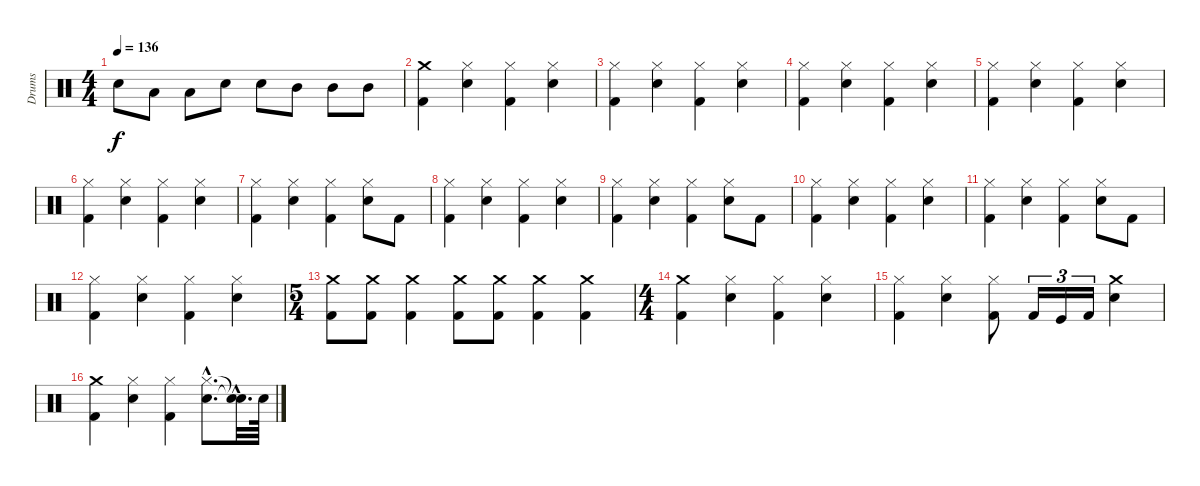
\track ("Drums" "Drums") {instrument percussion}
\staff {score}
\articulation defaults
\ts (4 4)
\tempo 136
\clef neutral
\ks c "Snare (hit) 2".8{dy f} "Low Tom (hit)".8 "Low Tom (hit)".8 "Snare (hit) 2".8 "Snare (hit) 2".8 "Mid Tom (hit)".8 "Mid Tom (hit)".8 "Mid Tom (hit)".8
|
("Kick (hit) 2" "Crash medium (hit)").4 ("Hi-Hat (closed)" "Snare (hit) 2").4 ("Kick (hit) 2" "Hi-Hat (closed)").4 ("Snare (hit) 2" "Hi-Hat (closed)").4 |
("Hi-Hat (closed)" "Kick (hit) 2").4 ("Snare (hit) 2" "Hi-Hat (closed)").4 ("Kick (hit) 2" "Hi-Hat (closed)").4 ("Hi-Hat (closed)" "Snare (hit) 2").4 |
("Hi-Hat (closed)" "Kick (hit) 2").4 ("Snare (hit) 2" "Hi-Hat (closed)").4 ("Kick (hit) 2" "Hi-Hat (closed)").4 ("Hi-Hat (closed)" "Snare (hit) 2").4 |
("Hi-Hat (closed)" "Kick (hit) 2").4 ("Snare (hit) 2" "Hi-Hat (closed)").4 ("Kick (hit) 2" "Hi-Hat (closed)").4 ("Hi-Hat (closed)" "Snare (hit) 2").4 |
("Hi-Hat (closed)" "Kick (hit) 2").4 ("Snare (hit) 2" "Hi-Hat (closed)").4 ("Kick (hit) 2" "Hi-Hat (closed)").4 ("Hi-Hat (closed)" "Snare (hit) 2").4 |
("Hi-Hat (closed)" "Kick (hit) 2").4 ("Snare (hit) 2" "Hi-Hat (closed)").4 ("Kick (hit) 2" "Hi-Hat (closed)").4 ("Hi-Hat (closed)" "Snare (hit) 2").8 "Kick (hit) 2".8 |
("Hi-Hat (closed)" "Kick (hit) 2").4 ("Snare (hit) 2" "Hi-Hat (closed)").4 ("Kick (hit) 2" "Hi-Hat (closed)").4 ("Hi-Hat (closed)" "Snare (hit) 2").4 |
("Hi-Hat (closed)" "Kick (hit) 2").4 ("Snare (hit) 2" "Hi-Hat (closed)").4 ("Kick (hit) 2" "Hi-Hat (closed)").4 ("Hi-Hat (closed)" "Snare (hit) 2").8 "Kick (hit) 2".8 |
("Hi-Hat (closed)" "Kick (hit) 2").4 ("Snare (hit) 2" "Hi-Hat (closed)").4 ("Kick (hit) 2" "Hi-Hat (closed)").4 ("Hi-Hat (closed)" "Snare (hit) 2").4 |
("Hi-Hat (closed)" "Kick (hit) 2").4 ("Snare (hit) 2" "Hi-Hat (closed)").4 ("Kick (hit) 2" "Hi-Hat (closed)").4 ("Hi-Hat (closed)" "Snare (hit) 2").8 "Kick (hit) 2".8 |
("Hi-Hat (closed)" "Kick (hit) 2").4 ("Snare (hit) 2" "Hi-Hat (closed)").4 ("Kick (hit) 2" "Hi-Hat (closed)").4 ("Hi-Hat (closed)" "Snare (hit) 2").4 |
\ts (5 4)
("Kick (hit) 2" "Crash medium (hit)").8 ("Kick (hit) 2" "Crash medium (hit)").8 ("Kick (hit) 2" "Crash medium (hit)").4 ("Kick (hit) 2" "Crash medium (hit)").8 ("Kick (hit) 2" "Crash medium (hit)").8 ("Kick (hit) 2" "Crash medium (hit)").4 ("Kick (hit) 2" "Crash medium (hit)").4 |
\ts (4 4)
("Kick (hit) 2" "Crash medium (hit)").4 ("Hi-Hat (closed)" "Snare (hit) 2").4 ("Kick (hit) 2" "Hi-Hat (closed)").4 ("Hi-Hat (closed)" "Snare (hit) 2").4 |
("Kick (hit) 2" "Hi-Hat (closed)").4 ("Hi-Hat (closed)" "Snare (hit) 2").4 ("Kick (hit) 2" "Hi-Hat (closed)").8 "Kick (hit) 2".16{tu (3 2)} "Kick (hit)".16{tu (3 2)} "Kick (hit) 2".16{tu (3 2)} ("Crash medium (hit)" "Snare (hit) 2").4 |
("Kick (hit) 2" "Crash medium (hit)").4 ("Hi-Hat (closed)" "Snare (hit) 2").4 ("Kick (hit) 2" "Hi-Hat (closed)").4 ("Hi-Hat (closed)"{hac} "Snare (hit) 2"{hac}).8{d} ("Snare (hit)"{hac t} "Snare (hit)"{hac t}).32{d} "Snare (hit) 2".64
